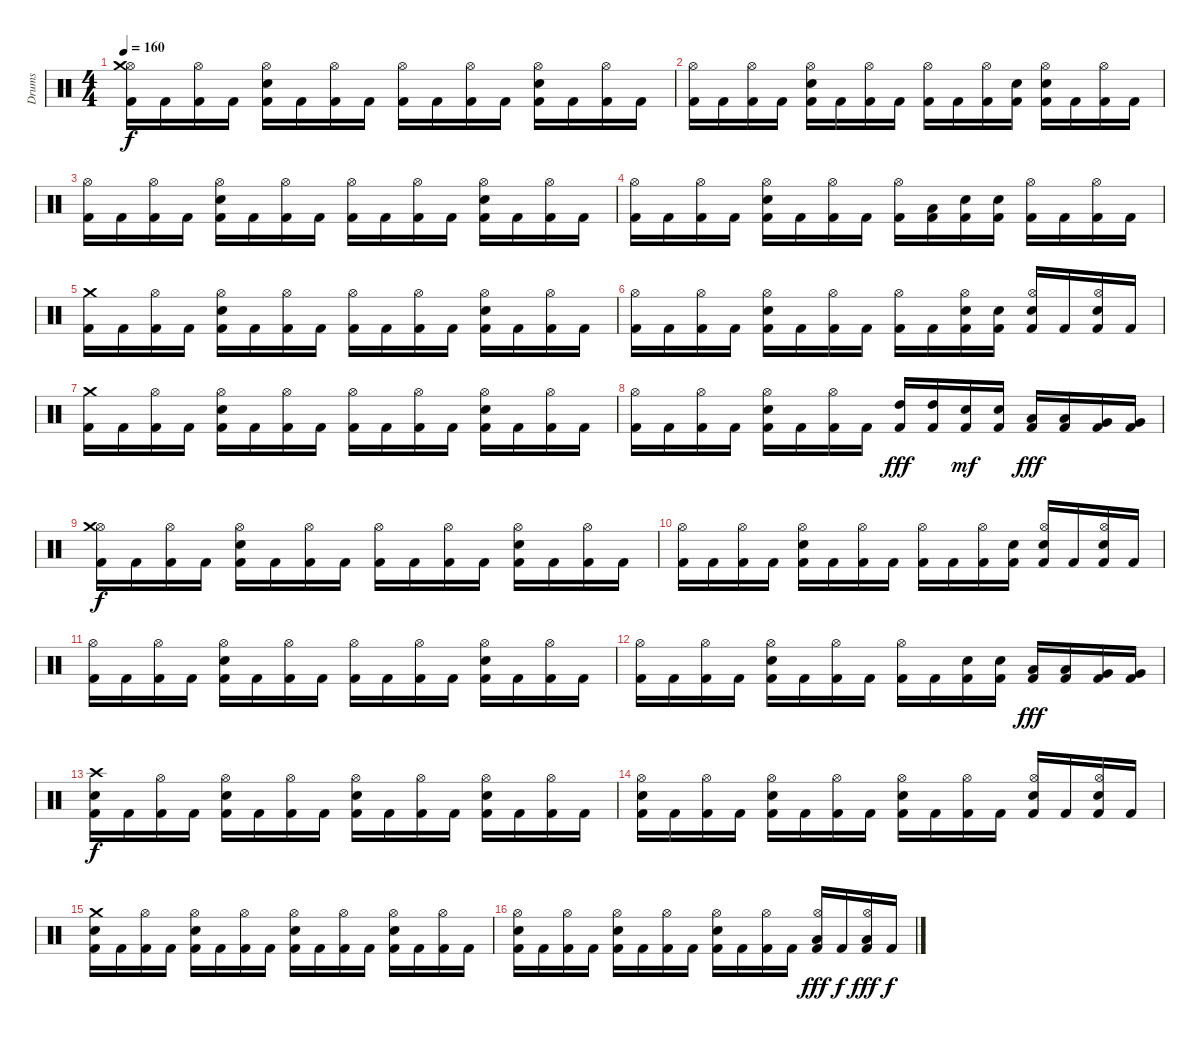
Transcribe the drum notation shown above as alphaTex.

\track ("Drums" "Drums") {instrument percussion}
\staff {score}
\articulation defaults
\ts (4 4)
\tempo 160
\clef neutral
\ks c
("Kick (hit) 2" "Hi-Hat (open)" "Crash medium (hit)").16{dy f} "Kick (hit) 2".16 ("Kick (hit) 2" "Hi-Hat (open)").16 "Kick (hit) 2".16 ("Kick (hit) 2" "Electric Snare (hit)" "Hi-Hat (open)").16 "Kick (hit) 2".16 ("Kick (hit) 2" "Hi-Hat (open)").16 "Kick (hit) 2".16 ("Kick (hit) 2" "Hi-Hat (open)").16 "Kick (hit) 2".16 ("Kick (hit) 2" "Hi-Hat (open)").16 "Kick (hit) 2".16 ("Kick (hit) 2" "Electric Snare (hit)" "Hi-Hat (open)").16 "Kick (hit) 2".16 ("Kick (hit) 2" "Hi-Hat (open)").16 "Kick (hit) 2".16 |
("Kick (hit) 2" "Hi-Hat (open)").16 "Kick (hit) 2".16 ("Kick (hit) 2" "Hi-Hat (open)").16 "Kick (hit) 2".16 ("Kick (hit) 2" "Electric Snare (hit)" "Hi-Hat (open)").16 "Kick (hit) 2".16 ("Kick (hit) 2" "Hi-Hat (open)").16 "Kick (hit) 2".16 ("Kick (hit) 2" "Hi-Hat (open)").16 "Kick (hit) 2".16 ("Kick (hit) 2" "Hi-Hat (open)").16 ("Kick (hit) 2" "Electric Snare (hit)").16 ("Kick (hit) 2" "Electric Snare (hit)" "Hi-Hat (open)").16 "Kick (hit) 2".16 ("Kick (hit) 2" "Hi-Hat (open)").16 "Kick (hit) 2".16 |
("Kick (hit) 2" "Hi-Hat (open)").16 "Kick (hit) 2".16 ("Kick (hit) 2" "Hi-Hat (open)").16 "Kick (hit) 2".16 ("Kick (hit) 2" "Electric Snare (hit)" "Hi-Hat (open)").16 "Kick (hit) 2".16 ("Kick (hit) 2" "Hi-Hat (open)").16 "Kick (hit) 2".16 ("Kick (hit) 2" "Hi-Hat (open)").16 "Kick (hit) 2".16 ("Kick (hit) 2" "Hi-Hat (open)").16 "Kick (hit) 2".16 ("Kick (hit) 2" "Electric Snare (hit)" "Hi-Hat (open)").16 "Kick (hit) 2".16 ("Kick (hit) 2" "Hi-Hat (open)").16 "Kick (hit) 2".16 |
("Kick (hit) 2" "Hi-Hat (open)").16 "Kick (hit) 2".16 ("Kick (hit) 2" "Hi-Hat (open)").16 "Kick (hit) 2".16 ("Kick (hit) 2" "Electric Snare (hit)" "Hi-Hat (open)").16 "Kick (hit) 2".16 ("Kick (hit) 2" "Hi-Hat (open)").16 "Kick (hit) 2".16 ("Kick (hit) 2" "Hi-Hat (open)").16 ("Kick (hit) 2" "Low Tom (hit)").16 ("Kick (hit) 2" "Electric Snare (hit)").16 ("Kick (hit) 2" "Electric Snare (hit)").16 ("Kick (hit) 2" "Hi-Hat (open)").16 "Kick (hit) 2".16 ("Kick (hit) 2" "Hi-Hat (open)").16 "Kick (hit) 2".16 |
("Kick (hit) 2" "Crash medium (hit)").16 "Kick (hit) 2".16 ("Kick (hit) 2" "Hi-Hat (open)").16 "Kick (hit) 2".16 ("Kick (hit) 2" "Electric Snare (hit)" "Hi-Hat (open)").16 "Kick (hit) 2".16 ("Kick (hit) 2" "Hi-Hat (open)").16 "Kick (hit) 2".16 ("Kick (hit) 2" "Hi-Hat (open)").16 "Kick (hit) 2".16 ("Kick (hit) 2" "Hi-Hat (open)").16 "Kick (hit) 2".16 ("Kick (hit) 2" "Electric Snare (hit)" "Hi-Hat (open)").16 "Kick (hit) 2".16 ("Kick (hit) 2" "Hi-Hat (open)").16 "Kick (hit) 2".16 |
("Kick (hit) 2" "Hi-Hat (open)").16 "Kick (hit) 2".16 ("Kick (hit) 2" "Hi-Hat (open)").16 "Kick (hit) 2".16 ("Kick (hit) 2" "Electric Snare (hit)" "Hi-Hat (open)").16 "Kick (hit) 2".16 ("Kick (hit) 2" "Hi-Hat (open)").16 "Kick (hit) 2".16 ("Kick (hit) 2" "Hi-Hat (open)").16 "Kick (hit) 2".16 ("Kick (hit) 2" "Electric Snare (hit)" "Hi-Hat (open)").16 ("Kick (hit) 2" "Electric Snare (hit)").16 ("Kick (hit) 2" "Electric Snare (hit)" "Hi-Hat (open)").16 "Kick (hit) 2".16 ("Kick (hit) 2" "Electric Snare (hit)" "Hi-Hat (open)").16 "Kick (hit) 2".16 |
("Kick (hit) 2" "Crash medium (hit)").16 "Kick (hit) 2".16 ("Kick (hit) 2" "Hi-Hat (open)").16 "Kick (hit) 2".16 ("Kick (hit) 2" "Electric Snare (hit)" "Hi-Hat (open)").16 "Kick (hit) 2".16 ("Kick (hit) 2" "Hi-Hat (open)").16 "Kick (hit) 2".16 ("Kick (hit) 2" "Hi-Hat (open)").16 "Kick (hit) 2".16 ("Kick (hit) 2" "Hi-Hat (open)").16 "Kick (hit) 2".16 ("Kick (hit) 2" "Electric Snare (hit)" "Hi-Hat (open)").16 "Kick (hit) 2".16 ("Kick (hit) 2" "Hi-Hat (open)").16 "Kick (hit) 2".16 |
("Kick (hit) 2" "Hi-Hat (open)").16 "Kick (hit) 2".16 ("Kick (hit) 2" "Hi-Hat (open)").16 "Kick (hit) 2".16 ("Kick (hit) 2" "Electric Snare (hit)" "Hi-Hat (open)").16 "Kick (hit) 2".16 ("Kick (hit) 2" "Hi-Hat (open)").16 "Kick (hit) 2".16 ("Kick (hit) 2" "High Tom (hit)").16{dy fff} ("Kick (hit) 2" "High Tom (hit)").16 ("Kick (hit) 2" "Electric Snare (hit)").16{dy mf} ("Kick (hit) 2" "Electric Snare (hit)").16 ("Kick (hit) 2" "Low Tom (hit)").16{dy fff} ("Kick (hit) 2" "Low Tom (hit)").16 ("Kick (hit) 2" "Very Low Tom (hit)").16 ("Kick (hit) 2" "Very Low Tom (hit)").16 |
("Kick (hit) 2" "Hi-Hat (open)" "Crash medium (hit)").16{dy f} "Kick (hit) 2".16 ("Kick (hit) 2" "Hi-Hat (open)").16 "Kick (hit) 2".16 ("Kick (hit) 2" "Electric Snare (hit)" "Hi-Hat (open)").16 "Kick (hit) 2".16 ("Kick (hit) 2" "Hi-Hat (open)").16 "Kick (hit) 2".16 ("Kick (hit) 2" "Hi-Hat (open)").16 "Kick (hit) 2".16 ("Kick (hit) 2" "Hi-Hat (open)").16 "Kick (hit) 2".16 ("Kick (hit) 2" "Electric Snare (hit)" "Hi-Hat (open)").16 "Kick (hit) 2".16 ("Kick (hit) 2" "Hi-Hat (open)").16 "Kick (hit) 2".16 |
("Kick (hit) 2" "Hi-Hat (open)").16 "Kick (hit) 2".16 ("Kick (hit) 2" "Hi-Hat (open)").16 "Kick (hit) 2".16 ("Kick (hit) 2" "Electric Snare (hit)" "Hi-Hat (open)").16 "Kick (hit) 2".16 ("Kick (hit) 2" "Hi-Hat (open)").16 "Kick (hit) 2".16 ("Kick (hit) 2" "Hi-Hat (open)").16 "Kick (hit) 2".16 ("Kick (hit) 2" "Hi-Hat (open)").16 ("Kick (hit) 2" "Electric Snare (hit)").16 ("Kick (hit) 2" "Electric Snare (hit)" "Hi-Hat (open)").16 "Kick (hit) 2".16 ("Kick (hit) 2" "Electric Snare (hit)" "Hi-Hat (open)").16 "Kick (hit) 2".16 |
("Kick (hit) 2" "Hi-Hat (open)").16 "Kick (hit) 2".16 ("Kick (hit) 2" "Hi-Hat (open)").16 "Kick (hit) 2".16 ("Kick (hit) 2" "Electric Snare (hit)" "Hi-Hat (open)").16 "Kick (hit) 2".16 ("Kick (hit) 2" "Hi-Hat (open)").16 "Kick (hit) 2".16 ("Kick (hit) 2" "Hi-Hat (open)").16 "Kick (hit) 2".16 ("Kick (hit) 2" "Hi-Hat (open)").16 "Kick (hit) 2".16 ("Kick (hit) 2" "Electric Snare (hit)" "Hi-Hat (open)").16 "Kick (hit) 2".16 ("Kick (hit) 2" "Hi-Hat (open)").16 "Kick (hit) 2".16 |
("Kick (hit) 2" "Hi-Hat (open)").16 "Kick (hit) 2".16 ("Kick (hit) 2" "Hi-Hat (open)").16 "Kick (hit) 2".16 ("Kick (hit) 2" "Electric Snare (hit)" "Hi-Hat (open)").16 "Kick (hit) 2".16 ("Kick (hit) 2" "Hi-Hat (open)").16 "Kick (hit) 2".16 ("Kick (hit) 2" "Hi-Hat (open)").16 "Kick (hit) 2".16 ("Kick (hit) 2" "Electric Snare (hit)").16 ("Kick (hit) 2" "Electric Snare (hit)").16 ("Kick (hit) 2" "Low Tom (hit)").16{dy fff} ("Kick (hit) 2" "Low Tom (hit)").16 ("Kick (hit) 2" "Very Low Tom (hit)").16 ("Kick (hit) 2" "Very Low Tom (hit)").16 |
("Kick (hit) 2" "Electric Snare (hit)" "Crash high (hit)").16{dy f} "Kick (hit) 2".16 ("Kick (hit) 2" "Hi-Hat (open)").16 "Kick (hit) 2".16 ("Kick (hit) 2" "Electric Snare (hit)" "Hi-Hat (open)").16 "Kick (hit) 2".16 ("Kick (hit) 2" "Hi-Hat (open)").16 "Kick (hit) 2".16 ("Kick (hit) 2" "Electric Snare (hit)" "Hi-Hat (open)").16 "Kick (hit) 2".16 ("Kick (hit) 2" "Hi-Hat (open)").16 "Kick (hit) 2".16 ("Kick (hit) 2" "Electric Snare (hit)" "Hi-Hat (open)").16 "Kick (hit) 2".16 ("Kick (hit) 2" "Hi-Hat (open)").16 "Kick (hit) 2".16 |
("Kick (hit) 2" "Electric Snare (hit)" "Hi-Hat (open)").16 "Kick (hit) 2".16 ("Kick (hit) 2" "Hi-Hat (open)").16 "Kick (hit) 2".16 ("Kick (hit) 2" "Electric Snare (hit)" "Hi-Hat (open)").16 "Kick (hit) 2".16 ("Kick (hit) 2" "Hi-Hat (open)").16 "Kick (hit) 2".16 ("Kick (hit) 2" "Electric Snare (hit)" "Hi-Hat (open)").16 "Kick (hit) 2".16 ("Kick (hit) 2" "Hi-Hat (open)").16 "Kick (hit) 2".16 ("Kick (hit) 2" "Electric Snare (hit)" "Hi-Hat (open)").16 "Kick (hit) 2".16 ("Kick (hit) 2" "Electric Snare (hit)" "Hi-Hat (open)").16 "Kick (hit) 2".16 |
("Kick (hit) 2" "Electric Snare (hit)" "Crash medium (hit)").16 "Kick (hit) 2".16 ("Kick (hit) 2" "Hi-Hat (open)").16 "Kick (hit) 2".16 ("Kick (hit) 2" "Electric Snare (hit)" "Hi-Hat (open)").16 "Kick (hit) 2".16 ("Kick (hit) 2" "Hi-Hat (open)").16 "Kick (hit) 2".16 ("Kick (hit) 2" "Electric Snare (hit)" "Hi-Hat (open)").16 "Kick (hit) 2".16 ("Kick (hit) 2" "Hi-Hat (open)").16 "Kick (hit) 2".16 ("Kick (hit) 2" "Electric Snare (hit)" "Hi-Hat (open)").16 "Kick (hit) 2".16 ("Kick (hit) 2" "Hi-Hat (open)").16 "Kick (hit) 2".16 |
("Kick (hit) 2" "Electric Snare (hit)" "Hi-Hat (open)").16 "Kick (hit) 2".16 ("Kick (hit) 2" "Hi-Hat (open)").16 "Kick (hit) 2".16 ("Kick (hit) 2" "Electric Snare (hit)" "Hi-Hat (open)").16 "Kick (hit) 2".16 ("Kick (hit) 2" "Hi-Hat (open)").16 "Kick (hit) 2".16 ("Kick (hit) 2" "Electric Snare (hit)" "Hi-Hat (open)").16 "Kick (hit) 2".16 ("Kick (hit) 2" "Hi-Hat (open)").16 "Kick (hit) 2".16 ("Kick (hit) 2" "Low Tom (hit)" "Hi-Hat (open)").16{dy fff} "Kick (hit) 2".16{dy f} ("Kick (hit) 2" "Low Tom (hit)" "Hi-Hat (open)").16{dy fff} "Kick (hit) 2".16{dy f}
